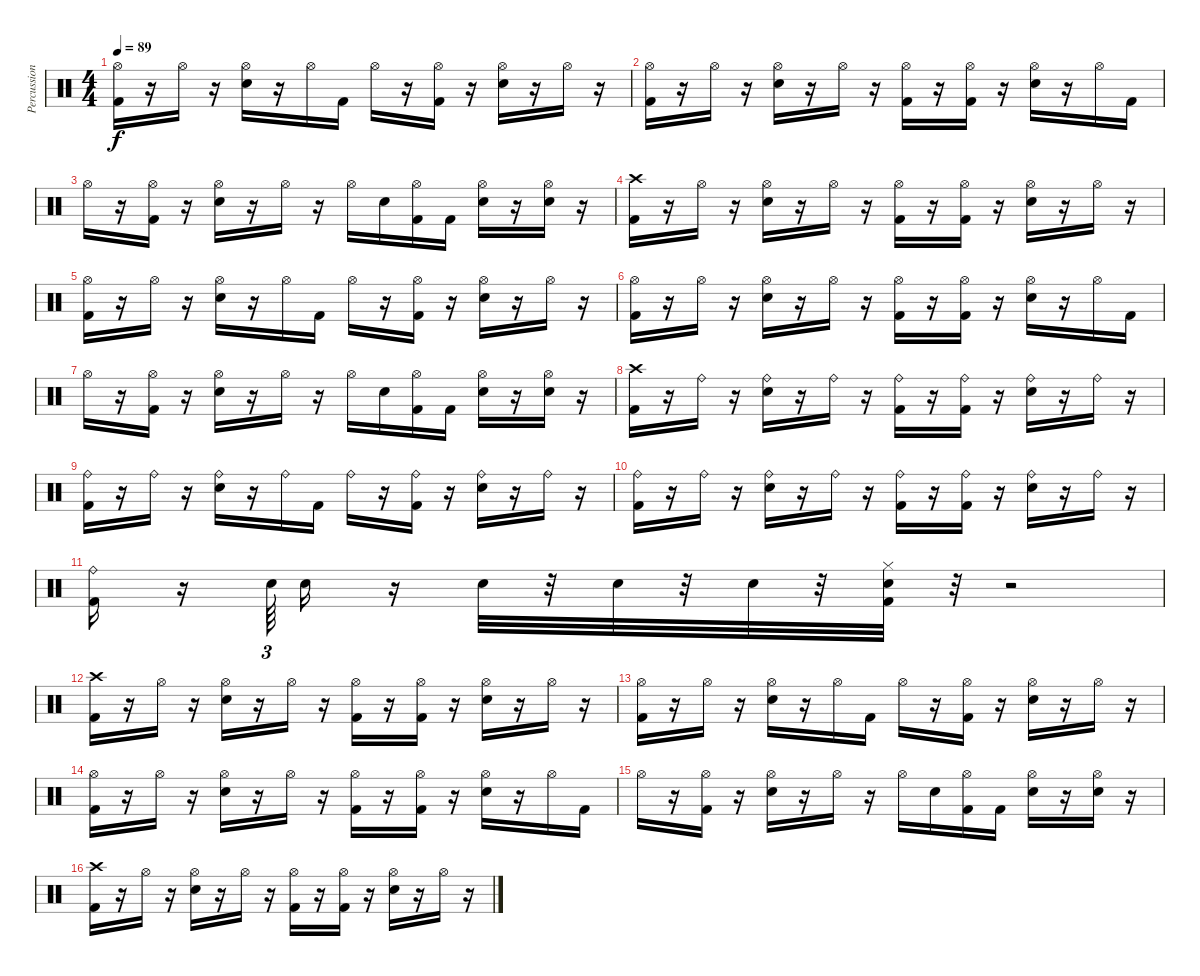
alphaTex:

\track ("Percussion" "Percussion") {instrument percussion}
\staff {score}
\articulation defaults
\ts (4 4)
\tempo 89
\clef neutral
\ks c
("Kick (hit) 2" "Hi-Hat (open)").16{dy f} r.16 "Hi-Hat (open)".16 r.16 ("Snare (hit) 2" "Hi-Hat (open)").16 r.16 "Hi-Hat (open)".16 "Kick (hit) 2".16 "Hi-Hat (open)".16 r.16 ("Kick (hit) 2" "Hi-Hat (open)").16 r.16 ("Snare (hit) 2" "Hi-Hat (open)").16 r.16 "Hi-Hat (open)".16 r.16 |
("Kick (hit) 2" "Hi-Hat (open)").16 r.16 "Hi-Hat (open)".16 r.16 ("Snare (hit) 2" "Hi-Hat (open)").16 r.16 "Hi-Hat (open)".16 r.16 ("Kick (hit) 2" "Hi-Hat (open)").16 r.16 ("Kick (hit) 2" "Hi-Hat (open)").16 r.16 ("Snare (hit) 2" "Hi-Hat (open)").16 r.16 "Hi-Hat (open)".16 "Kick (hit) 2".16 |
"Hi-Hat (open)".16 r.16 ("Kick (hit) 2" "Hi-Hat (open)").16 r.16 ("Snare (hit) 2" "Hi-Hat (open)").16 r.16 "Hi-Hat (open)".16 r.16 "Hi-Hat (open)".16 "Snare (hit) 2".16 ("Kick (hit) 2" "Hi-Hat (open)").16 "Kick (hit) 2".16 ("Snare (hit) 2" "Hi-Hat (open)").16 r.16 ("Snare (hit) 2" "Hi-Hat (open)").16 r.16 |
("Kick (hit) 2" "Crash high (hit)").16 r.16 "Hi-Hat (open)".16 r.16 ("Snare (hit) 2" "Hi-Hat (open)").16 r.16 "Hi-Hat (open)".16 r.16 ("Kick (hit) 2" "Hi-Hat (open)").16 r.16 ("Kick (hit) 2" "Hi-Hat (open)").16 r.16 ("Snare (hit) 2" "Hi-Hat (open)").16 r.16 "Hi-Hat (open)".16 r.16 |
("Kick (hit) 2" "Hi-Hat (open)").16 r.16 "Hi-Hat (open)".16 r.16 ("Snare (hit) 2" "Hi-Hat (open)").16 r.16 "Hi-Hat (open)".16 "Kick (hit) 2".16 "Hi-Hat (open)".16 r.16 ("Kick (hit) 2" "Hi-Hat (open)").16 r.16 ("Snare (hit) 2" "Hi-Hat (open)").16 r.16 "Hi-Hat (open)".16 r.16 |
("Kick (hit) 2" "Hi-Hat (open)").16 r.16 "Hi-Hat (open)".16 r.16 ("Snare (hit) 2" "Hi-Hat (open)").16 r.16 "Hi-Hat (open)".16 r.16 ("Kick (hit) 2" "Hi-Hat (open)").16 r.16 ("Kick (hit) 2" "Hi-Hat (open)").16 r.16 ("Snare (hit) 2" "Hi-Hat (open)").16 r.16 "Hi-Hat (open)".16 "Kick (hit) 2".16 |
"Hi-Hat (open)".16 r.16 ("Kick (hit) 2" "Hi-Hat (open)").16 r.16 ("Snare (hit) 2" "Hi-Hat (open)").16 r.16 "Hi-Hat (open)".16 r.16 "Hi-Hat (open)".16 "Snare (hit) 2".16 ("Kick (hit) 2" "Hi-Hat (open)").16 "Kick (hit) 2".16 ("Snare (hit) 2" "Hi-Hat (open)").16 r.16 ("Snare (hit) 2" "Hi-Hat (open)").16 r.16 |
("Crash high (hit)" "Kick (hit) 2").16 r.16 "Ride (bell)".16 r.16 ("Ride (bell)" "Snare (hit) 2").16 r.16 "Ride (bell)".16 r.16 ("Ride (bell)" "Kick (hit) 2").16 r.16 ("Ride (bell)" "Kick (hit) 2").16 r.16 ("Ride (bell)" "Snare (hit) 2").16 r.16 "Ride (bell)".16 r.16 |
("Ride (bell)" "Kick (hit) 2").16 r.16 "Ride (bell)".16 r.16 ("Ride (bell)" "Snare (hit) 2").16 r.16 "Ride (bell)".16 "Kick (hit) 2".16 "Ride (bell)".16 r.16 ("Ride (bell)" "Kick (hit) 2").16 r.16 ("Ride (bell)" "Snare (hit) 2").16 r.16 "Ride (bell)".16 r.16 |
("Ride (bell)" "Kick (hit) 2").16 r.16 "Ride (bell)".16 r.16 ("Ride (bell)" "Snare (hit) 2").16 r.16 "Ride (bell)".16 r.16 ("Ride (bell)" "Kick (hit) 2").16 r.16 ("Ride (bell)" "Kick (hit) 2").16 r.16 ("Ride (bell)" "Snare (hit) 2").16 r.16 "Ride (bell)".16 r.16 |
("Kick (hit) 2" "Ride (bell)").16 r.16 "Snare (hit) 2".64{tu (3 2)} "Snare (hit) 2".16 r.16 "Snare (hit) 2".32 r.32 "Snare (hit) 2".32 r.32 "Snare (hit) 2".32 r.32 ("Snare (hit) 2" "Hi-Hat (closed)" "Kick (hit) 2").32 r.32{tu (3 2)} r.2 |
("Kick (hit) 2" "Crash high (hit)").16 r.16 "Hi-Hat (open)".16 r.16 ("Snare (hit) 2" "Hi-Hat (open)").16 r.16 "Hi-Hat (open)".16 r.16 ("Kick (hit) 2" "Hi-Hat (open)").16 r.16 ("Kick (hit) 2" "Hi-Hat (open)").16 r.16 ("Snare (hit) 2" "Hi-Hat (open)").16 r.16 "Hi-Hat (open)".16 r.16 |
("Kick (hit) 2" "Hi-Hat (open)").16 r.16 "Hi-Hat (open)".16 r.16 ("Snare (hit) 2" "Hi-Hat (open)").16 r.16 "Hi-Hat (open)".16 "Kick (hit) 2".16 "Hi-Hat (open)".16 r.16 ("Kick (hit) 2" "Hi-Hat (open)").16 r.16 ("Snare (hit) 2" "Hi-Hat (open)").16 r.16 "Hi-Hat (open)".16 r.16 |
("Kick (hit) 2" "Hi-Hat (open)").16 r.16 "Hi-Hat (open)".16 r.16 ("Snare (hit) 2" "Hi-Hat (open)").16 r.16 "Hi-Hat (open)".16 r.16 ("Kick (hit) 2" "Hi-Hat (open)").16 r.16 ("Kick (hit) 2" "Hi-Hat (open)").16 r.16 ("Snare (hit) 2" "Hi-Hat (open)").16 r.16 "Hi-Hat (open)".16 "Kick (hit) 2".16 |
"Hi-Hat (open)".16 r.16 ("Kick (hit) 2" "Hi-Hat (open)").16 r.16 ("Snare (hit) 2" "Hi-Hat (open)").16 r.16 "Hi-Hat (open)".16 r.16 "Hi-Hat (open)".16 "Snare (hit) 2".16 ("Kick (hit) 2" "Hi-Hat (open)").16 "Kick (hit) 2".16 ("Snare (hit) 2" "Hi-Hat (open)").16 r.16 ("Snare (hit) 2" "Hi-Hat (open)").16 r.16 |
("Kick (hit) 2" "Crash high (hit)").16 r.16 "Hi-Hat (open)".16 r.16 ("Snare (hit) 2" "Hi-Hat (open)").16 r.16 "Hi-Hat (open)".16 r.16 ("Kick (hit) 2" "Hi-Hat (open)").16 r.16 ("Kick (hit) 2" "Hi-Hat (open)").16 r.16 ("Snare (hit) 2" "Hi-Hat (open)").16 r.16 "Hi-Hat (open)".16 r.16
